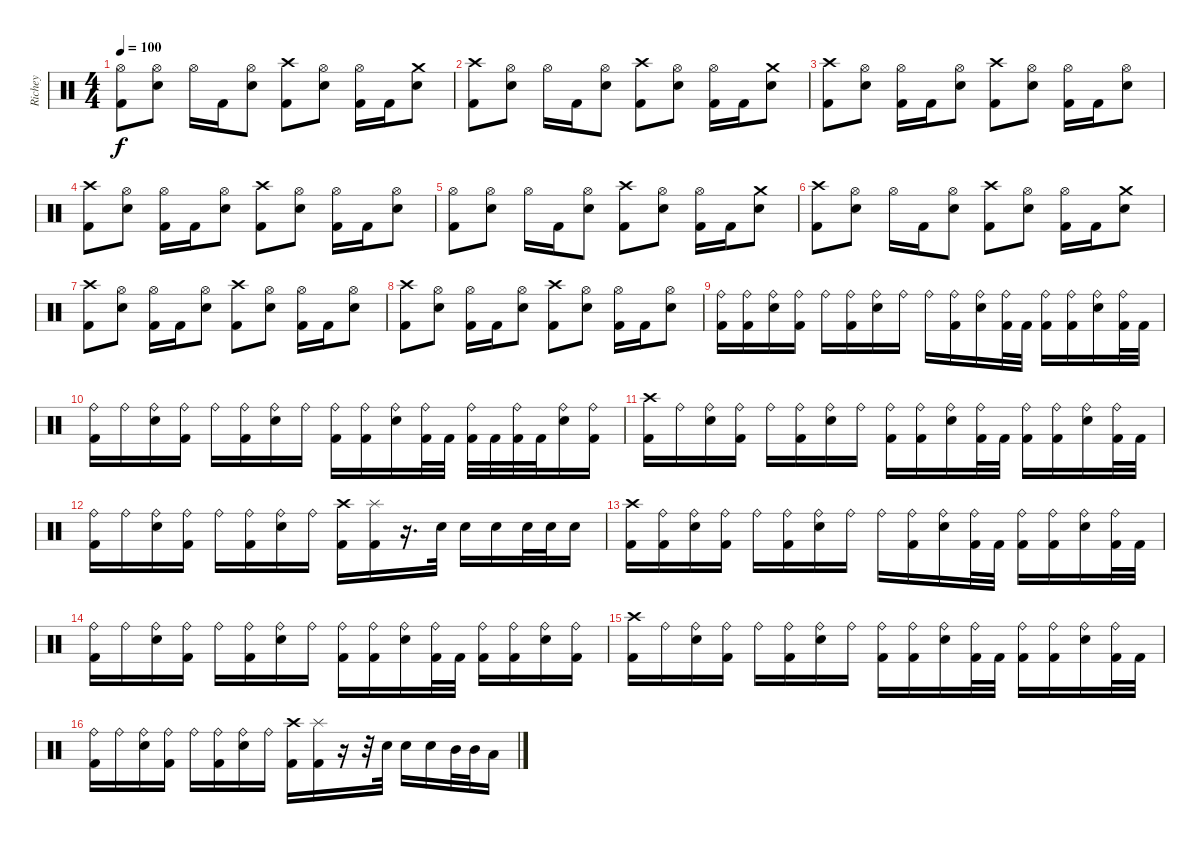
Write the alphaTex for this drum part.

\track ("Richey" "Richey") {instrument percussion}
\staff {score}
\articulation defaults
\ts (4 4)
\tempo 100
\clef neutral
\ks c
("Hi-Hat (open)" "Kick (hit) 2").8{dy f} ("Hi-Hat (open)" "Snare (hit) 2").8 "Hi-Hat (open)".16 "Kick (hit) 2".16 ("Hi-Hat (open)" "Snare (hit) 2").8 ("Crash high (hit)" "Kick (hit) 2").8 ("Hi-Hat (open)" "Snare (hit) 2").8 ("Hi-Hat (open)" "Kick (hit) 2").16 "Kick (hit) 2".16 ("Crash medium (hit)" "Snare (hit) 2").8 |
("Crash high (hit)" "Kick (hit) 2").8 ("Hi-Hat (open)" "Snare (hit) 2").8 "Hi-Hat (open)".16 "Kick (hit) 2".16 ("Hi-Hat (open)" "Snare (hit) 2").8 ("Crash high (hit)" "Kick (hit) 2").8 ("Hi-Hat (open)" "Snare (hit) 2").8 ("Hi-Hat (open)" "Kick (hit) 2").16 "Kick (hit) 2".16 ("Crash medium (hit)" "Snare (hit) 2").8 |
("Crash high (hit)" "Kick (hit) 2").8 ("Hi-Hat (open)" "Snare (hit) 2").8 ("Hi-Hat (open)" "Kick (hit) 2").16 "Kick (hit) 2".16 ("Hi-Hat (open)" "Snare (hit) 2").8 ("Crash high (hit)" "Kick (hit) 2").8 ("Hi-Hat (open)" "Snare (hit) 2").8 ("Hi-Hat (open)" "Kick (hit) 2").16 "Kick (hit) 2".16 ("Hi-Hat (open)" "Snare (hit) 2").8 |
("Crash high (hit)" "Kick (hit) 2").8 ("Hi-Hat (open)" "Snare (hit) 2").8 ("Hi-Hat (open)" "Kick (hit) 2").16 "Kick (hit) 2".16 ("Hi-Hat (open)" "Snare (hit) 2").8 ("Crash high (hit)" "Kick (hit) 2").8 ("Hi-Hat (open)" "Snare (hit) 2").8 ("Hi-Hat (open)" "Kick (hit) 2").16 "Kick (hit) 2".16 ("Hi-Hat (open)" "Snare (hit) 2").8 |
("Hi-Hat (open)" "Kick (hit) 2").8 ("Hi-Hat (open)" "Snare (hit) 2").8 "Hi-Hat (open)".16 "Kick (hit) 2".16 ("Hi-Hat (open)" "Snare (hit) 2").8 ("Crash high (hit)" "Kick (hit) 2").8 ("Hi-Hat (open)" "Snare (hit) 2").8 ("Hi-Hat (open)" "Kick (hit) 2").16 "Kick (hit) 2".16 ("Crash medium (hit)" "Snare (hit) 2").8 |
("Crash high (hit)" "Kick (hit) 2").8 ("Hi-Hat (open)" "Snare (hit) 2").8 "Hi-Hat (open)".16 "Kick (hit) 2".16 ("Hi-Hat (open)" "Snare (hit) 2").8 ("Crash high (hit)" "Kick (hit) 2").8 ("Hi-Hat (open)" "Snare (hit) 2").8 ("Hi-Hat (open)" "Kick (hit) 2").16 "Kick (hit) 2".16 ("Crash medium (hit)" "Snare (hit) 2").8 |
("Crash high (hit)" "Kick (hit) 2").8 ("Hi-Hat (open)" "Snare (hit) 2").8 ("Hi-Hat (open)" "Kick (hit) 2").16 "Kick (hit) 2".16 ("Hi-Hat (open)" "Snare (hit) 2").8 ("Crash high (hit)" "Kick (hit) 2").8 ("Hi-Hat (open)" "Snare (hit) 2").8 ("Hi-Hat (open)" "Kick (hit) 2").16 "Kick (hit) 2".16 ("Hi-Hat (open)" "Snare (hit) 2").8 |
("Crash high (hit)" "Kick (hit) 2").8 ("Hi-Hat (open)" "Snare (hit) 2").8 ("Hi-Hat (open)" "Kick (hit) 2").16 "Kick (hit) 2".16 ("Hi-Hat (open)" "Snare (hit) 2").8 ("Crash high (hit)" "Kick (hit) 2").8 ("Hi-Hat (open)" "Snare (hit) 2").8 ("Hi-Hat (open)" "Kick (hit) 2").16 "Kick (hit) 2".16 ("Hi-Hat (open)" "Snare (hit) 2").8 |
("Ride (bell)" "Kick (hit) 2").16 ("Ride (bell)" "Kick (hit) 2").16 ("Ride (bell)" "Snare (hit) 2").16 ("Ride (bell)" "Kick (hit) 2").16 "Ride (bell)".16 ("Ride (bell)" "Kick (hit) 2").16 ("Ride (bell)" "Snare (hit) 2").16 "Ride (bell)".16 "Ride (bell)".16 ("Ride (bell)" "Kick (hit) 2").16 ("Ride (bell)" "Snare (hit) 2").16 ("Ride (bell)" "Kick (hit) 2").32 "Kick (hit) 2".32 ("Ride (bell)" "Kick (hit) 2").16 ("Ride (bell)" "Kick (hit) 2").16 ("Ride (bell)" "Snare (hit) 2").16 ("Ride (bell)" "Kick (hit) 2").32 "Kick (hit) 2".32 |
("Ride (bell)" "Kick (hit) 2").16 "Ride (bell)".16 ("Ride (bell)" "Snare (hit) 2").16 ("Ride (bell)" "Kick (hit) 2").16 "Ride (bell)".16 ("Ride (bell)" "Kick (hit) 2").16 ("Ride (bell)" "Snare (hit) 2").16 "Ride (bell)".16 ("Ride (bell)" "Kick (hit) 2").16 ("Ride (bell)" "Kick (hit) 2").16 ("Ride (bell)" "Snare (hit) 2").16 ("Ride (bell)" "Kick (hit) 2").32 "Kick (hit) 2".32 ("Ride (bell)" "Kick (hit) 2").32 "Kick (hit) 2".32 ("Ride (bell)" "Kick (hit) 2").32 "Kick (hit) 2".32 ("Ride (bell)" "Snare (hit) 2").16 ("Ride (bell)" "Kick (hit) 2").16 |
("Crash high (hit)" "Kick (hit) 2").16 "Ride (bell)".16 ("Ride (bell)" "Snare (hit) 2").16 ("Ride (bell)" "Kick (hit) 2").16 "Ride (bell)".16 ("Ride (bell)" "Kick (hit) 2").16 ("Ride (bell)" "Snare (hit) 2").16 "Ride (bell)".16 ("Ride (bell)" "Kick (hit) 2").16 ("Ride (bell)" "Kick (hit) 2").16 ("Ride (bell)" "Snare (hit) 2").16 ("Ride (bell)" "Kick (hit) 2").32 "Kick (hit) 2".32 ("Ride (bell)" "Kick (hit) 2").16 ("Ride (bell)" "Kick (hit) 2").16 ("Ride (bell)" "Snare (hit) 2").16 ("Ride (bell)" "Kick (hit) 2").32 "Kick (hit) 2".32 |
("Ride (bell)" "Kick (hit) 2").16 "Ride (bell)".16 ("Ride (bell)" "Snare (hit) 2").16 ("Ride (bell)" "Kick (hit) 2").16 "Ride (bell)".16 ("Ride (bell)" "Kick (hit) 2").16 ("Ride (bell)" "Snare (hit) 2").16 "Ride (bell)".16 ("Crash high (hit)" "Kick (hit) 2").16 ("Splash (hit)" "Kick (hit) 2").16 r.16{d} "Snare (hit) 2".32 "Snare (hit) 2".16 "Snare (hit) 2".16 "Snare (hit) 2".32 "Snare (hit) 2".32 "Snare (hit) 2".16 |
("Crash high (hit)" "Kick (hit) 2").16 ("Ride (bell)" "Kick (hit) 2").16 ("Ride (bell)" "Snare (hit) 2").16 ("Ride (bell)" "Kick (hit) 2").16 "Ride (bell)".16 ("Ride (bell)" "Kick (hit) 2").16 ("Ride (bell)" "Snare (hit) 2").16 "Ride (bell)".16 "Ride (bell)".16 ("Ride (bell)" "Kick (hit) 2").16 ("Ride (bell)" "Snare (hit) 2").16 ("Ride (bell)" "Kick (hit) 2").32 "Kick (hit) 2".32 ("Ride (bell)" "Kick (hit) 2").16 ("Ride (bell)" "Kick (hit) 2").16 ("Ride (bell)" "Snare (hit) 2").16 ("Ride (bell)" "Kick (hit) 2").32 "Kick (hit) 2".32 |
("Ride (bell)" "Kick (hit) 2").16 "Ride (bell)".16 ("Ride (bell)" "Snare (hit) 2").16 ("Ride (bell)" "Kick (hit) 2").16 "Ride (bell)".16 ("Ride (bell)" "Kick (hit) 2").16 ("Ride (bell)" "Snare (hit) 2").16 "Ride (bell)".16 ("Ride (bell)" "Kick (hit) 2").16 ("Ride (bell)" "Kick (hit) 2").16 ("Ride (bell)" "Snare (hit) 2").16 ("Ride (bell)" "Kick (hit) 2").32 "Kick (hit) 2".32 ("Ride (bell)" "Kick (hit) 2").16 ("Ride (bell)" "Kick (hit) 2").16 ("Ride (bell)" "Snare (hit) 2").16 ("Ride (bell)" "Kick (hit) 2").16 |
("Crash high (hit)" "Kick (hit) 2").16 "Ride (bell)".16 ("Ride (bell)" "Snare (hit) 2").16 ("Ride (bell)" "Kick (hit) 2").16 "Ride (bell)".16 ("Ride (bell)" "Kick (hit) 2").16 ("Ride (bell)" "Snare (hit) 2").16 "Ride (bell)".16 ("Ride (bell)" "Kick (hit) 2").16 ("Ride (bell)" "Kick (hit) 2").16 ("Ride (bell)" "Snare (hit) 2").16 ("Ride (bell)" "Kick (hit) 2").32 "Kick (hit) 2".32 ("Ride (bell)" "Kick (hit) 2").16 ("Ride (bell)" "Kick (hit) 2").16 ("Ride (bell)" "Snare (hit) 2").16 ("Ride (bell)" "Kick (hit) 2").32 "Kick (hit) 2".32 |
("Ride (bell)" "Kick (hit) 2").16 "Ride (bell)".16 ("Ride (bell)" "Snare (hit) 2").16 ("Ride (bell)" "Kick (hit) 2").16 "Ride (bell)".16 ("Ride (bell)" "Kick (hit) 2").16 ("Ride (bell)" "Snare (hit) 2").16 "Ride (bell)".16 ("Crash high (hit)" "Kick (hit) 2").16 ("Splash (hit)" "Kick (hit) 2").16 r.16 r.32 "Snare (hit) 2".32 "Snare (hit) 2".16 "Snare (hit) 2".16 "Mid Tom (hit)".32 "Mid Tom (hit)".32 "Low Tom (hit)".16
